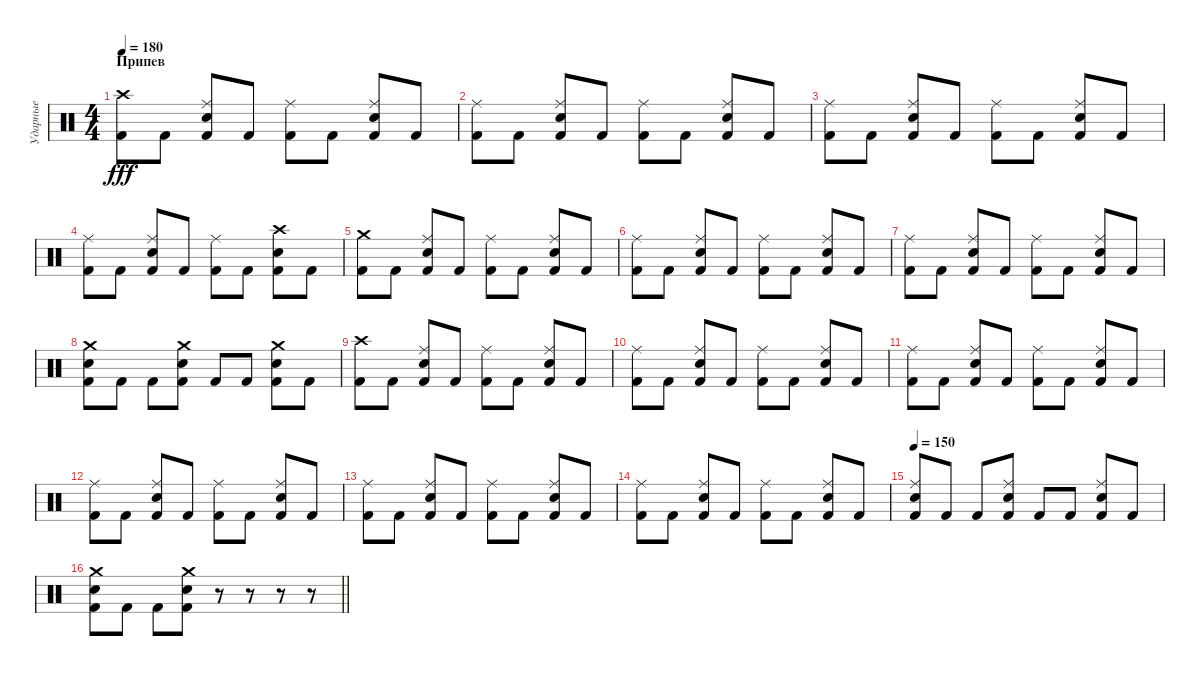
\track ("Ударные" "Ударные") {instrument percussion}
\staff {score}
\articulation defaults
\ts (4 4)
\section ("" "Припев")
\tempo 180
\clef neutral
\ks c
("Crash high (hit)" "Kick (hit) 2").8{dy fff} "Kick (hit) 2".8 ("Ride (middle)" "Snare (hit) 2" "Kick (hit) 2").8 "Kick (hit) 2".8 ("Ride (middle)" "Kick (hit) 2").8 "Kick (hit) 2".8 ("Ride (middle)" "Snare (hit) 2" "Kick (hit) 2").8 "Kick (hit) 2".8 |
("Ride (middle)" "Kick (hit) 2").8 "Kick (hit) 2".8 ("Ride (middle)" "Snare (hit) 2" "Kick (hit) 2").8 "Kick (hit) 2".8 ("Ride (middle)" "Kick (hit) 2").8 "Kick (hit) 2".8 ("Ride (middle)" "Snare (hit) 2" "Kick (hit) 2").8 "Kick (hit) 2".8 |
("Ride (middle)" "Kick (hit) 2").8 "Kick (hit) 2".8 ("Ride (middle)" "Snare (hit) 2" "Kick (hit) 2").8 "Kick (hit) 2".8 ("Ride (middle)" "Kick (hit) 2").8 "Kick (hit) 2".8 ("Ride (middle)" "Snare (hit) 2" "Kick (hit) 2").8 "Kick (hit) 2".8 |
("Ride (middle)" "Kick (hit) 2").8 "Kick (hit) 2".8 ("Ride (middle)" "Snare (hit) 2" "Kick (hit) 2").8 "Kick (hit) 2".8 ("Ride (middle)" "Kick (hit) 2").8 "Kick (hit) 2".8 ("Crash high (hit)" "Snare (hit) 2" "Kick (hit) 2").8 "Kick (hit) 2".8 |
("Crash medium (hit)" "Kick (hit) 2").8 "Kick (hit) 2".8 ("Ride (middle)" "Snare (hit) 2" "Kick (hit) 2").8 "Kick (hit) 2".8 ("Ride (middle)" "Kick (hit) 2").8 "Kick (hit) 2".8 ("Ride (middle)" "Snare (hit) 2" "Kick (hit) 2").8 "Kick (hit) 2".8 |
("Ride (middle)" "Kick (hit) 2").8 "Kick (hit) 2".8 ("Ride (middle)" "Snare (hit) 2" "Kick (hit) 2").8 "Kick (hit) 2".8 ("Ride (middle)" "Kick (hit) 2").8 "Kick (hit) 2".8 ("Ride (middle)" "Snare (hit) 2" "Kick (hit) 2").8 "Kick (hit) 2".8 |
("Ride (middle)" "Kick (hit) 2").8 "Kick (hit) 2".8 ("Ride (middle)" "Snare (hit) 2" "Kick (hit) 2").8 "Kick (hit) 2".8 ("Ride (middle)" "Kick (hit) 2").8 "Kick (hit) 2".8 ("Ride (middle)" "Snare (hit) 2" "Kick (hit) 2").8 "Kick (hit) 2".8 |
("Crash medium (hit)" "Snare (hit) 2" "Kick (hit) 2").8 "Kick (hit) 2".8 "Kick (hit) 2".8 ("Crash medium (hit)" "Snare (hit) 2" "Kick (hit) 2").8 "Kick (hit) 2".8 "Kick (hit) 2".8 ("Crash medium (hit)" "Snare (hit) 2" "Kick (hit) 2").8 "Kick (hit) 2".8 |
("Crash high (hit)" "Kick (hit) 2").8 "Kick (hit) 2".8 ("Ride (middle)" "Snare (hit) 2" "Kick (hit) 2").8 "Kick (hit) 2".8 ("Ride (middle)" "Kick (hit) 2").8 "Kick (hit) 2".8 ("Ride (middle)" "Snare (hit) 2" "Kick (hit) 2").8 "Kick (hit) 2".8 |
("Ride (middle)" "Kick (hit) 2").8 "Kick (hit) 2".8 ("Ride (middle)" "Snare (hit) 2" "Kick (hit) 2").8 "Kick (hit) 2".8 ("Ride (middle)" "Kick (hit) 2").8 "Kick (hit) 2".8 ("Ride (middle)" "Snare (hit) 2" "Kick (hit) 2").8 "Kick (hit) 2".8 |
("Ride (middle)" "Kick (hit) 2").8 "Kick (hit) 2".8 ("Ride (middle)" "Snare (hit) 2" "Kick (hit) 2").8 "Kick (hit) 2".8 ("Ride (middle)" "Kick (hit) 2").8 "Kick (hit) 2".8 ("Ride (middle)" "Snare (hit) 2" "Kick (hit) 2").8 "Kick (hit) 2".8 |
("Ride (middle)" "Kick (hit) 2").8 "Kick (hit) 2".8 ("Ride (middle)" "Snare (hit) 2" "Kick (hit) 2").8 "Kick (hit) 2".8 ("Ride (middle)" "Kick (hit) 2").8 "Kick (hit) 2".8 ("Ride (middle)" "Snare (hit) 2" "Kick (hit) 2").8 "Kick (hit) 2".8 |
("Ride (middle)" "Kick (hit) 2").8 "Kick (hit) 2".8 ("Ride (middle)" "Snare (hit) 2" "Kick (hit) 2").8 "Kick (hit) 2".8 ("Ride (middle)" "Kick (hit) 2").8 "Kick (hit) 2".8 ("Ride (middle)" "Snare (hit) 2" "Kick (hit) 2").8 "Kick (hit) 2".8 |
("Ride (middle)" "Kick (hit) 2").8 "Kick (hit) 2".8 ("Ride (middle)" "Snare (hit) 2" "Kick (hit) 2").8 "Kick (hit) 2".8 ("Ride (middle)" "Kick (hit) 2").8 "Kick (hit) 2".8 ("Ride (middle)" "Snare (hit) 2" "Kick (hit) 2").8 "Kick (hit) 2".8 |
\tempo 150
("Ride (middle)" "Snare (hit) 2" "Kick (hit) 2").8 "Kick (hit) 2".8 "Kick (hit) 2".8 ("Ride (middle)" "Snare (hit) 2" "Kick (hit) 2").8 "Kick (hit) 2".8 "Kick (hit) 2".8 ("Ride (middle)" "Snare (hit) 2" "Kick (hit) 2").8 "Kick (hit) 2".8 |
\barLineRight lightlight
("Crash medium (hit)" "Snare (hit) 2" "Kick (hit) 2").8 "Kick (hit) 2".8 "Kick (hit) 2".8 ("Crash medium (hit)" "Snare (hit) 2" "Kick (hit) 2").8 r.8 r.8 r.8 r.8
